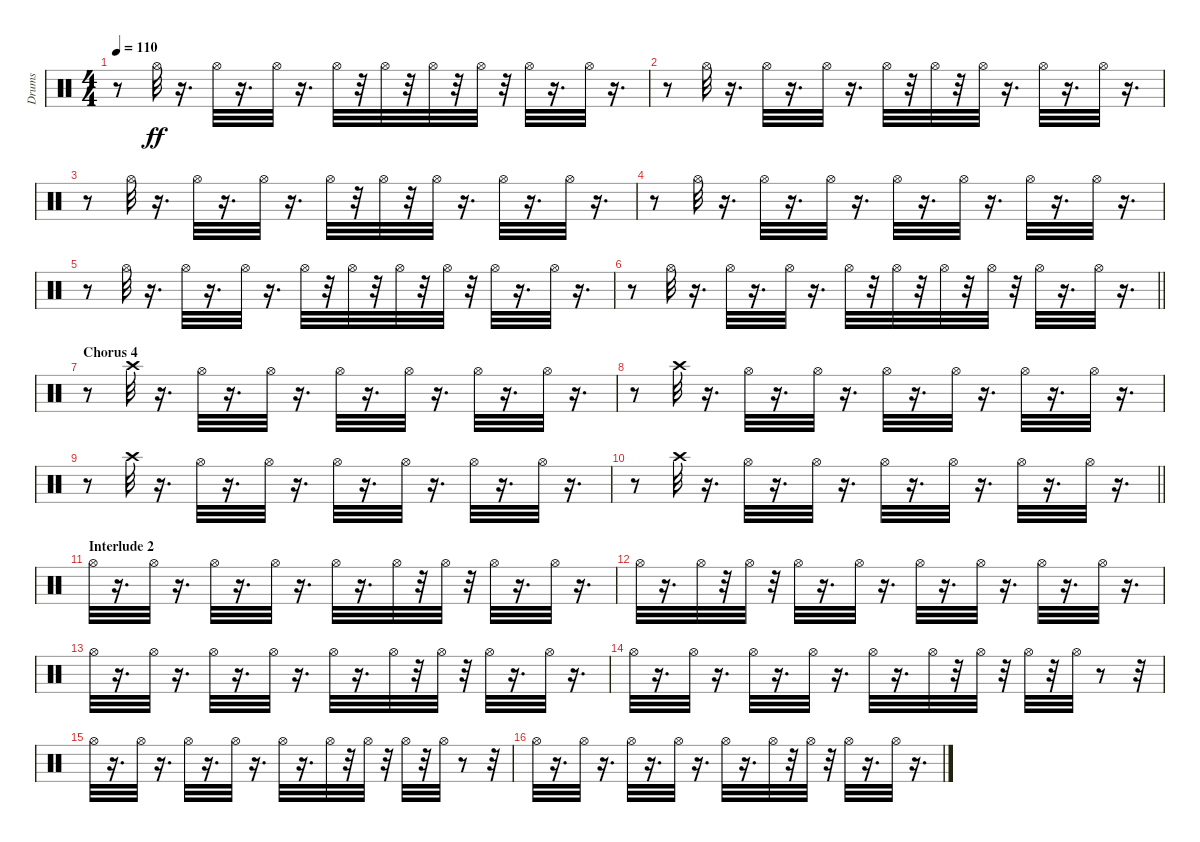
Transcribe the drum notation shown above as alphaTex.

\track ("Drums" "Drums") {instrument percussion}
\staff {score}
\articulation defaults
\ts (4 4)
\tempo 110
\clef neutral
\ks c
r.8{dy ff} "Hi-Hat (open)".32 r.16{d} "Hi-Hat (open)".32 r.16{d} "Hi-Hat (open)".32 r.16{d} "Hi-Hat (open)".32 r.32 "Hi-Hat (open)".32 r.32 "Hi-Hat (open)".32 r.32 "Hi-Hat (open)".32 r.32 "Hi-Hat (open)".32 r.16{d} "Hi-Hat (open)".32 r.16{d} |
r.8 "Hi-Hat (open)".32 r.16{d} "Hi-Hat (open)".32 r.16{d} "Hi-Hat (open)".32 r.16{d} "Hi-Hat (open)".32 r.32 "Hi-Hat (open)".32 r.32 "Hi-Hat (open)".32 r.16{d} "Hi-Hat (open)".32 r.16{d} "Hi-Hat (open)".32 r.16{d} |
r.8 "Hi-Hat (open)".32 r.16{d} "Hi-Hat (open)".32 r.16{d} "Hi-Hat (open)".32 r.16{d} "Hi-Hat (open)".32 r.32 "Hi-Hat (open)".32 r.32 "Hi-Hat (open)".32 r.16{d} "Hi-Hat (open)".32 r.16{d} "Hi-Hat (open)".32 r.16{d} |
r.8 "Hi-Hat (open)".32 r.16{d} "Hi-Hat (open)".32 r.16{d} "Hi-Hat (open)".32 r.16{d} "Hi-Hat (open)".32 r.16{d} "Hi-Hat (open)".32 r.16{d} "Hi-Hat (open)".32 r.16{d} "Hi-Hat (open)".32 r.16{d} |
r.8 "Hi-Hat (open)".32 r.16{d} "Hi-Hat (open)".32 r.16{d} "Hi-Hat (open)".32 r.16{d} "Hi-Hat (open)".32 r.32 "Hi-Hat (open)".32 r.32 "Hi-Hat (open)".32 r.32 "Hi-Hat (open)".32 r.32 "Hi-Hat (open)".32 r.16{d} "Hi-Hat (open)".32 r.16{d} |
\barLineRight lightlight
r.8 "Hi-Hat (open)".32 r.16{d} "Hi-Hat (open)".32 r.16{d} "Hi-Hat (open)".32 r.16{d} "Hi-Hat (open)".32 r.32 "Hi-Hat (open)".32 r.32 "Hi-Hat (open)".32 r.32 "Hi-Hat (open)".32 r.32 "Hi-Hat (open)".32 r.16{d} "Hi-Hat (open)".32 r.16{d} |
\section ("" "Chorus 4")
r.8 "Crash high (hit)".32 r.16{d} "Hi-Hat (open)".32 r.16{d} "Hi-Hat (open)".32 r.16{d} "Hi-Hat (open)".32 r.16{d} "Hi-Hat (open)".32 r.16{d} "Hi-Hat (open)".32 r.16{d} "Hi-Hat (open)".32 r.16{d} |
r.8 "Crash high (hit)".32 r.16{d} "Hi-Hat (open)".32 r.16{d} "Hi-Hat (open)".32 r.16{d} "Hi-Hat (open)".32 r.16{d} "Hi-Hat (open)".32 r.16{d} "Hi-Hat (open)".32 r.16{d} "Hi-Hat (open)".32 r.16{d} |
r.8 "Crash high (hit)".32 r.16{d} "Hi-Hat (open)".32 r.16{d} "Hi-Hat (open)".32 r.16{d} "Hi-Hat (open)".32 r.16{d} "Hi-Hat (open)".32 r.16{d} "Hi-Hat (open)".32 r.16{d} "Hi-Hat (open)".32 r.16{d} |
\barLineRight lightlight
r.8 "Crash high (hit)".32 r.16{d} "Hi-Hat (open)".32 r.16{d} "Hi-Hat (open)".32 r.16{d} "Hi-Hat (open)".32 r.16{d} "Hi-Hat (open)".32 r.16{d} "Hi-Hat (open)".32 r.16{d} "Hi-Hat (open)".32 r.16{d} |
\section ("" "Interlude 2")
"Hi-Hat (open)".32 r.16{d} "Hi-Hat (open)".32 r.16{d} "Hi-Hat (open)".32 r.16{d} "Hi-Hat (open)".32 r.16{d} "Hi-Hat (open)".32 r.16{d} "Hi-Hat (open)".32 r.32 "Hi-Hat (open)".32 r.32 "Hi-Hat (open)".32 r.16{d} "Hi-Hat (open)".32 r.16{d} |
"Hi-Hat (open)".32 r.16{d} "Hi-Hat (open)".32 r.32 "Hi-Hat (open)".32 r.32 "Hi-Hat (open)".32 r.16{d} "Hi-Hat (open)".32 r.16{d} "Hi-Hat (open)".32 r.16{d} "Hi-Hat (open)".32 r.16{d} "Hi-Hat (open)".32 r.16{d} "Hi-Hat (open)".32 r.16{d} |
"Hi-Hat (open)".32 r.16{d} "Hi-Hat (open)".32 r.16{d} "Hi-Hat (open)".32 r.16{d} "Hi-Hat (open)".32 r.16{d} "Hi-Hat (open)".32 r.16{d} "Hi-Hat (open)".32 r.32 "Hi-Hat (open)".32 r.32 "Hi-Hat (open)".32 r.16{d} "Hi-Hat (open)".32 r.16{d} |
"Hi-Hat (open)".32 r.16{d} "Hi-Hat (open)".32 r.16{d} "Hi-Hat (open)".32 r.16{d} "Hi-Hat (open)".32 r.16{d} "Hi-Hat (open)".32 r.16{d} "Hi-Hat (open)".32 r.32 "Hi-Hat (open)".32 r.32 "Hi-Hat (open)".32 r.32 "Hi-Hat (open)".32 r.8 r.32 |
"Hi-Hat (open)".32 r.16{d} "Hi-Hat (open)".32 r.16{d} "Hi-Hat (open)".32 r.16{d} "Hi-Hat (open)".32 r.16{d} "Hi-Hat (open)".32 r.16{d} "Hi-Hat (open)".32 r.32 "Hi-Hat (open)".32 r.32 "Hi-Hat (open)".32 r.32 "Hi-Hat (open)".32 r.8 r.32 |
"Hi-Hat (open)".32 r.16{d} "Hi-Hat (open)".32 r.16{d} "Hi-Hat (open)".32 r.16{d} "Hi-Hat (open)".32 r.16{d} "Hi-Hat (open)".32 r.16{d} "Hi-Hat (open)".32 r.32 "Hi-Hat (open)".32 r.32 "Hi-Hat (open)".32 r.16{d} "Hi-Hat (open)".32 r.16{d}
